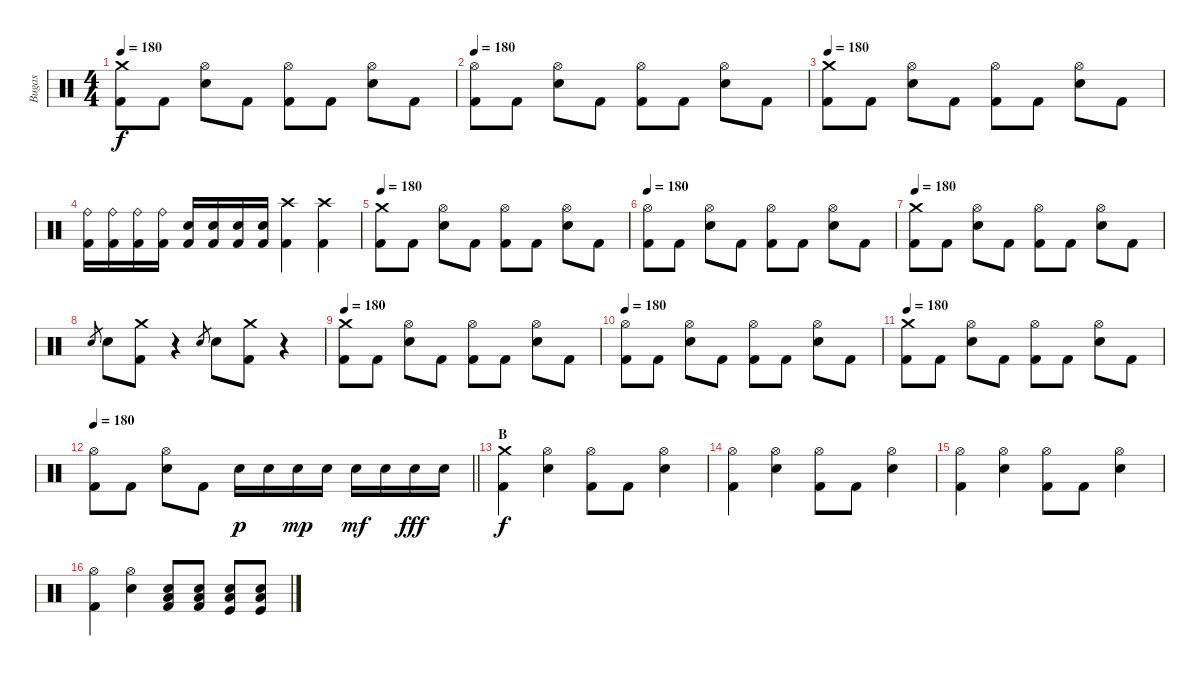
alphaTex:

\track ("Bugas" "Bugas") {instrument percussion}
\staff {score}
\articulation defaults
\ts (4 4)
\tempo 180
\clef neutral
\ks c
("Crash medium (hit)" "Kick (hit) 2").8{dy f} "Kick (hit) 2".8 ("Hi-Hat (open)" "Electric Snare (hit)").8 "Kick (hit) 2".8 ("Hi-Hat (open)" "Kick (hit) 2").8 "Kick (hit) 2".8 ("Hi-Hat (open)" "Electric Snare (hit)").8 "Kick (hit) 2".8 |
\tempo 180
("Hi-Hat (open)" "Kick (hit) 2").8 "Kick (hit) 2".8 ("Hi-Hat (open)" "Electric Snare (hit)").8 "Kick (hit) 2".8 ("Hi-Hat (open)" "Kick (hit) 2").8 "Kick (hit) 2".8 ("Hi-Hat (open)" "Electric Snare (hit)").8 "Kick (hit) 2".8 |
\tempo 180
("Crash medium (hit)" "Kick (hit) 2").8 "Kick (hit) 2".8 ("Hi-Hat (open)" "Electric Snare (hit)").8 "Kick (hit) 2".8 ("Hi-Hat (open)" "Kick (hit) 2").8 "Kick (hit) 2".8 ("Hi-Hat (open)" "Electric Snare (hit)").8 "Kick (hit) 2".8 |
("Ride (bell)" "Kick (hit) 2").16 ("Ride (bell)" "Kick (hit) 2").16 ("Ride (bell)" "Kick (hit) 2").16 ("Ride (bell)" "Kick (hit) 2").16 ("Electric Snare (hit)" "Kick (hit) 2").16 ("Electric Snare (hit)" "Kick (hit) 2").16 ("Electric Snare (hit)" "Kick (hit) 2").16 ("Electric Snare (hit)" "Kick (hit) 2").16 ("Crash high (hit)" "Kick (hit) 2").4 ("Crash high (hit)" "Kick (hit) 2").4 |
\tempo 180
("Crash medium (hit)" "Kick (hit) 2").8 "Kick (hit) 2".8 ("Hi-Hat (open)" "Electric Snare (hit)").8 "Kick (hit) 2".8 ("Hi-Hat (open)" "Kick (hit) 2").8 "Kick (hit) 2".8 ("Hi-Hat (open)" "Electric Snare (hit)").8 "Kick (hit) 2".8 |
\tempo 180
("Hi-Hat (open)" "Kick (hit) 2").8 "Kick (hit) 2".8 ("Hi-Hat (open)" "Electric Snare (hit)").8 "Kick (hit) 2".8 ("Hi-Hat (open)" "Kick (hit) 2").8 "Kick (hit) 2".8 ("Hi-Hat (open)" "Electric Snare (hit)").8 "Kick (hit) 2".8 |
\tempo 180
("Crash medium (hit)" "Kick (hit) 2").8 "Kick (hit) 2".8 ("Hi-Hat (open)" "Electric Snare (hit)").8 "Kick (hit) 2".8 ("Hi-Hat (open)" "Kick (hit) 2").8 "Kick (hit) 2".8 ("Hi-Hat (open)" "Electric Snare (hit)").8 "Kick (hit) 2".8 |
"Electric Snare (hit)".8{gr} "Electric Snare (hit)".8 ("Crash medium (hit)" "Kick (hit) 2").8 r.4 "Electric Snare (hit)".8{gr} "Electric Snare (hit)".8 ("Crash medium (hit)" "Kick (hit) 2").8 r.4 |
\tempo 180
("Crash medium (hit)" "Kick (hit) 2").8 "Kick (hit) 2".8 ("Hi-Hat (open)" "Electric Snare (hit)").8 "Kick (hit) 2".8 ("Hi-Hat (open)" "Kick (hit) 2").8 "Kick (hit) 2".8 ("Hi-Hat (open)" "Electric Snare (hit)").8 "Kick (hit) 2".8 |
\tempo 180
("Hi-Hat (open)" "Kick (hit) 2").8 "Kick (hit) 2".8 ("Hi-Hat (open)" "Electric Snare (hit)").8 "Kick (hit) 2".8 ("Hi-Hat (open)" "Kick (hit) 2").8 "Kick (hit) 2".8 ("Hi-Hat (open)" "Electric Snare (hit)").8 "Kick (hit) 2".8 |
\tempo 180
("Crash medium (hit)" "Kick (hit) 2").8 "Kick (hit) 2".8 ("Hi-Hat (open)" "Electric Snare (hit)").8 "Kick (hit) 2".8 ("Hi-Hat (open)" "Kick (hit) 2").8 "Kick (hit) 2".8 ("Hi-Hat (open)" "Electric Snare (hit)").8 "Kick (hit) 2".8 |
\tempo 180
\barLineRight lightlight
("Hi-Hat (open)" "Kick (hit) 2").8 "Kick (hit) 2".8 ("Hi-Hat (open)" "Electric Snare (hit)").8 "Kick (hit) 2".8 "Electric Snare (hit)".16{dy p} "Electric Snare (hit)".16 "Electric Snare (hit)".16{dy mp} "Electric Snare (hit)".16 "Electric Snare (hit)".16{dy mf} "Electric Snare (hit)".16 "Electric Snare (hit)".16{dy fff} "Electric Snare (hit)".16 |
\section ("" "B")
("Crash medium (hit)" "Kick (hit) 2").4{dy f} ("Hi-Hat (open)" "Electric Snare (hit)").4 ("Hi-Hat (open)" "Kick (hit) 2").8 "Kick (hit) 2".8 ("Hi-Hat (open)" "Electric Snare (hit)").4 |
("Hi-Hat (open)" "Kick (hit) 2").4 ("Hi-Hat (open)" "Electric Snare (hit)").4 ("Hi-Hat (open)" "Kick (hit) 2").8 "Kick (hit) 2".8 ("Hi-Hat (open)" "Electric Snare (hit)").4 |
("Hi-Hat (open)" "Kick (hit) 2").4 ("Hi-Hat (open)" "Electric Snare (hit)").4 ("Hi-Hat (open)" "Kick (hit) 2").8 "Kick (hit) 2".8 ("Hi-Hat (open)" "Electric Snare (hit)").4 |
("Hi-Hat (open)" "Kick (hit) 2").4 ("Hi-Hat (open)" "Electric Snare (hit)").4 ("Electric Snare (hit)" "Low Tom (hit)" "Kick (hit) 2").8 ("Electric Snare (hit)" "Low Tom (hit)" "Kick (hit) 2").8 ("Electric Snare (hit)" "Low Tom (hit)" "Kick (hit)").8 ("Electric Snare (hit)" "Low Tom (hit)" "Kick (hit)").8
